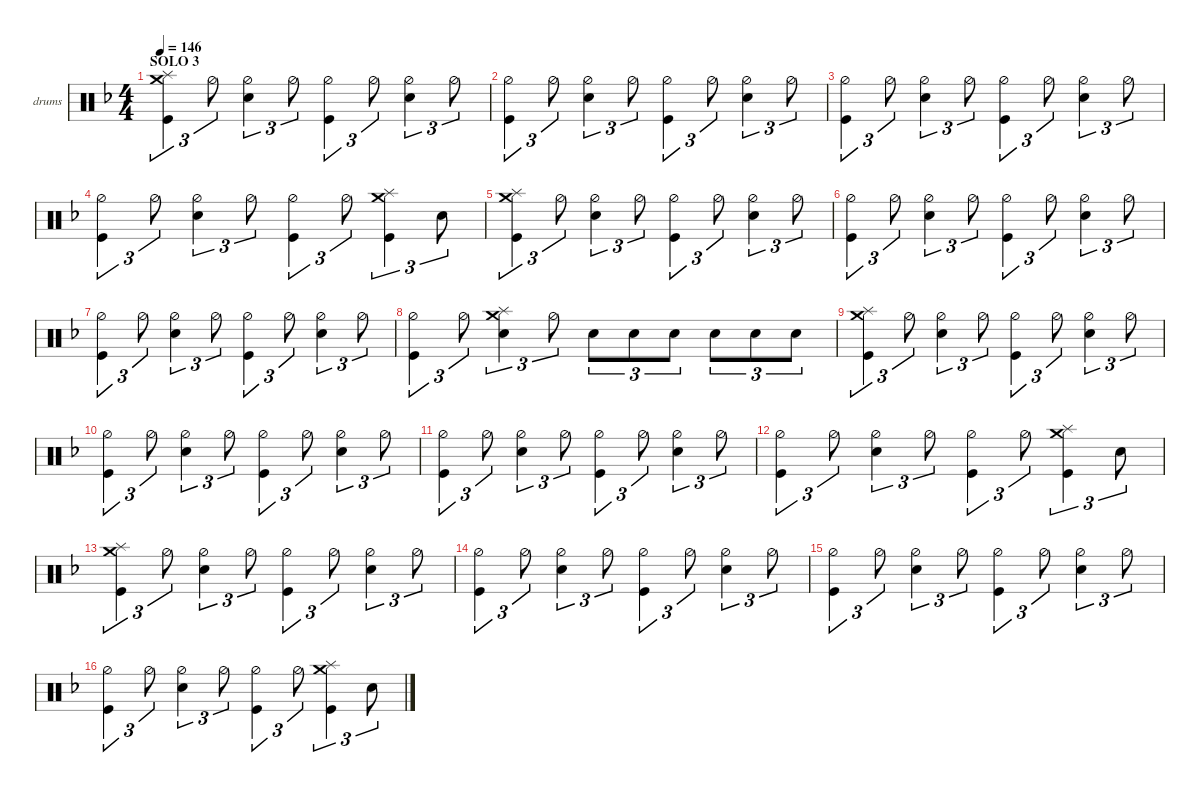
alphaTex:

\defaultSystemsLayout 4
\hideDynamics
\bracketExtendMode nobrackets
\firstSystemTrackNameOrientation horizontal
\otherSystemsTrackNameOrientation horizontal
\track ("drums" "drums") {instrument percussion}
\staff {score}
\articulation defaults
\ts (4 4)
\section ("" "SOLO 3")
\tempo 146
\clef neutral
\scale
1.06392
\ks f
("Kick (hit)" "Splash (hit)" "Crash medium (hit)").4{tu (3 2) dy mf} "Hi-Hat (half)".8{tu (3 2)} ("Hi-Hat (half)" "Snare (hit) 2").4{tu (3 2)} "Hi-Hat (half)".8{tu (3 2)} ("Kick (hit)" "Hi-Hat (half)").4{tu (3 2)} "Hi-Hat (half)".8{tu (3 2)} ("Hi-Hat (half)" "Snare (hit) 2").4{tu (3 2)} "Hi-Hat (half)".8{tu (3 2)} |
\scale
0.978695 ("Kick (hit)" "Hi-Hat (half)").4{tu (3 2)} "Hi-Hat (half)".8{tu (3 2)} ("Hi-Hat (half)" "Snare (hit) 2").4{tu (3 2)} "Hi-Hat (half)".8{tu (3 2)} ("Kick (hit)" "Hi-Hat (half)").4{tu (3 2)} "Hi-Hat (half)".8{tu (3 2)} ("Hi-Hat (half)" "Snare (hit) 2").4{tu (3 2)} "Hi-Hat (half)".8{tu (3 2)} |
\scale
0.978695 ("Kick (hit)" "Hi-Hat (half)").4{tu (3 2)} "Hi-Hat (half)".8{tu (3 2)} ("Hi-Hat (half)" "Snare (hit) 2").4{tu (3 2)} "Hi-Hat (half)".8{tu (3 2)} ("Kick (hit)" "Hi-Hat (half)").4{tu (3 2)} "Hi-Hat (half)".8{tu (3 2)} ("Hi-Hat (half)" "Snare (hit) 2").4{tu (3 2)} "Hi-Hat (half)".8{tu (3 2)} |
\scale
0.978695 ("Kick (hit)" "Hi-Hat (half)").4{tu (3 2)} "Hi-Hat (half)".8{tu (3 2)} ("Hi-Hat (half)" "Snare (hit) 2").4{tu (3 2)} "Hi-Hat (half)".8{tu (3 2)} ("Kick (hit)" "Hi-Hat (half)").4{tu (3 2)} "Hi-Hat (half)".8{tu (3 2)} ("Kick (hit)" "Splash (hit)" "Crash medium (hit)").4{tu (3 2)} "Snare (hit) 2".8{tu (3 2)} |
\scale
1.06786 ("Kick (hit)" "Splash (hit)" "Crash medium (hit)").4{tu (3 2)} "Hi-Hat (half)".8{tu (3 2)} ("Hi-Hat (half)" "Snare (hit) 2").4{tu (3 2)} "Hi-Hat (half)".8{tu (3 2)} ("Kick (hit)" "Hi-Hat (half)").4{tu (3 2)} "Hi-Hat (half)".8{tu (3 2)} ("Hi-Hat (half)" "Snare (hit) 2").4{tu (3 2)} "Hi-Hat (half)".8{tu (3 2)} |
\scale
0.977379 ("Kick (hit)" "Hi-Hat (half)").4{tu (3 2)} "Hi-Hat (half)".8{tu (3 2)} ("Hi-Hat (half)" "Snare (hit) 2").4{tu (3 2)} "Hi-Hat (half)".8{tu (3 2)} ("Kick (hit)" "Hi-Hat (half)").4{tu (3 2)} "Hi-Hat (half)".8{tu (3 2)} ("Hi-Hat (half)" "Snare (hit) 2").4{tu (3 2)} "Hi-Hat (half)".8{tu (3 2)} |
\scale
0.977379 ("Kick (hit)" "Hi-Hat (half)").4{tu (3 2)} "Hi-Hat (half)".8{tu (3 2)} ("Hi-Hat (half)" "Snare (hit) 2").4{tu (3 2)} "Hi-Hat (half)".8{tu (3 2)} ("Kick (hit)" "Hi-Hat (half)").4{tu (3 2)} "Hi-Hat (half)".8{tu (3 2)} ("Hi-Hat (half)" "Snare (hit) 2").4{tu (3 2)} "Hi-Hat (half)".8{tu (3 2)} |
\scale
0.977379 ("Kick (hit)" "Hi-Hat (half)").4{tu (3 2)} "Hi-Hat (half)".8{tu (3 2)} ("Splash (hit)" "Crash medium (hit)" "Snare (hit) 2").4{tu (3 2)} "Hi-Hat (half)".8{tu (3 2)} "Snare (hit) 2".8{tu (3 2)} "Snare (hit) 2".8{tu (3 2)} "Snare (hit) 2".8{tu (3 2)} "Snare (hit) 2".8{tu (3 2)} "Snare (hit) 2".8{tu (3 2)} "Snare (hit) 2".8{tu (3 2)} |
\scale
1.06786 ("Kick (hit)" "Splash (hit)" "Crash medium (hit)").4{tu (3 2)} "Hi-Hat (half)".8{tu (3 2)} ("Hi-Hat (half)" "Snare (hit) 2").4{tu (3 2)} "Hi-Hat (half)".8{tu (3 2)} ("Kick (hit)" "Hi-Hat (half)").4{tu (3 2)} "Hi-Hat (half)".8{tu (3 2)} ("Hi-Hat (half)" "Snare (hit) 2").4{tu (3 2)} "Hi-Hat (half)".8{tu (3 2)} |
\scale
0.977379 ("Kick (hit)" "Hi-Hat (half)").4{tu (3 2)} "Hi-Hat (half)".8{tu (3 2)} ("Hi-Hat (half)" "Snare (hit) 2").4{tu (3 2)} "Hi-Hat (half)".8{tu (3 2)} ("Kick (hit)" "Hi-Hat (half)").4{tu (3 2)} "Hi-Hat (half)".8{tu (3 2)} ("Hi-Hat (half)" "Snare (hit) 2").4{tu (3 2)} "Hi-Hat (half)".8{tu (3 2)} |
\scale
0.977379 ("Kick (hit)" "Hi-Hat (half)").4{tu (3 2)} "Hi-Hat (half)".8{tu (3 2)} ("Hi-Hat (half)" "Snare (hit) 2").4{tu (3 2)} "Hi-Hat (half)".8{tu (3 2)} ("Kick (hit)" "Hi-Hat (half)").4{tu (3 2)} "Hi-Hat (half)".8{tu (3 2)} ("Hi-Hat (half)" "Snare (hit) 2").4{tu (3 2)} "Hi-Hat (half)".8{tu (3 2)} |
\scale
0.977379 ("Kick (hit)" "Hi-Hat (half)").4{tu (3 2)} "Hi-Hat (half)".8{tu (3 2)} ("Hi-Hat (half)" "Snare (hit) 2").4{tu (3 2)} "Hi-Hat (half)".8{tu (3 2)} ("Kick (hit)" "Hi-Hat (half)").4{tu (3 2)} "Hi-Hat (half)".8{tu (3 2)} ("Kick (hit)" "Splash (hit)" "Crash medium (hit)").4{tu (3 2)} "Snare (hit) 2".8{tu (3 2)} |
\scale
1.06344 ("Kick (hit)" "Splash (hit)" "Crash medium (hit)").4{tu (3 2)} "Hi-Hat (half)".8{tu (3 2)} ("Hi-Hat (half)" "Snare (hit) 2").4{tu (3 2)} "Hi-Hat (half)".8{tu (3 2)} ("Kick (hit)" "Hi-Hat (half)").4{tu (3 2)} "Hi-Hat (half)".8{tu (3 2)} ("Hi-Hat (half)" "Snare (hit) 2").4{tu (3 2)} "Hi-Hat (half)".8{tu (3 2)} |
\scale
0.972958 ("Kick (hit)" "Hi-Hat (half)").4{tu (3 2)} "Hi-Hat (half)".8{tu (3 2)} ("Hi-Hat (half)" "Snare (hit) 2").4{tu (3 2)} "Hi-Hat (half)".8{tu (3 2)} ("Kick (hit)" "Hi-Hat (half)").4{tu (3 2)} "Hi-Hat (half)".8{tu (3 2)} ("Hi-Hat (half)" "Snare (hit) 2").4{tu (3 2)} "Hi-Hat (half)".8{tu (3 2)} |
\scale
0.972958 ("Kick (hit)" "Hi-Hat (half)").4{tu (3 2)} "Hi-Hat (half)".8{tu (3 2)} ("Hi-Hat (half)" "Snare (hit) 2").4{tu (3 2)} "Hi-Hat (half)".8{tu (3 2)} ("Kick (hit)" "Hi-Hat (half)").4{tu (3 2)} "Hi-Hat (half)".8{tu (3 2)} ("Hi-Hat (half)" "Snare (hit) 2").4{tu (3 2)} "Hi-Hat (half)".8{tu (3 2)} |
\scale
0.990642 ("Kick (hit)" "Hi-Hat (half)").4{tu (3 2)} "Hi-Hat (half)".8{tu (3 2)} ("Hi-Hat (half)" "Snare (hit) 2").4{tu (3 2)} "Hi-Hat (half)".8{tu (3 2)} ("Kick (hit)" "Hi-Hat (half)").4{tu (3 2)} "Hi-Hat (half)".8{tu (3 2)} ("Kick (hit)" "Splash (hit)" "Crash medium (hit)").4{tu (3 2)} "Snare (hit) 2".8{tu (3 2)}
